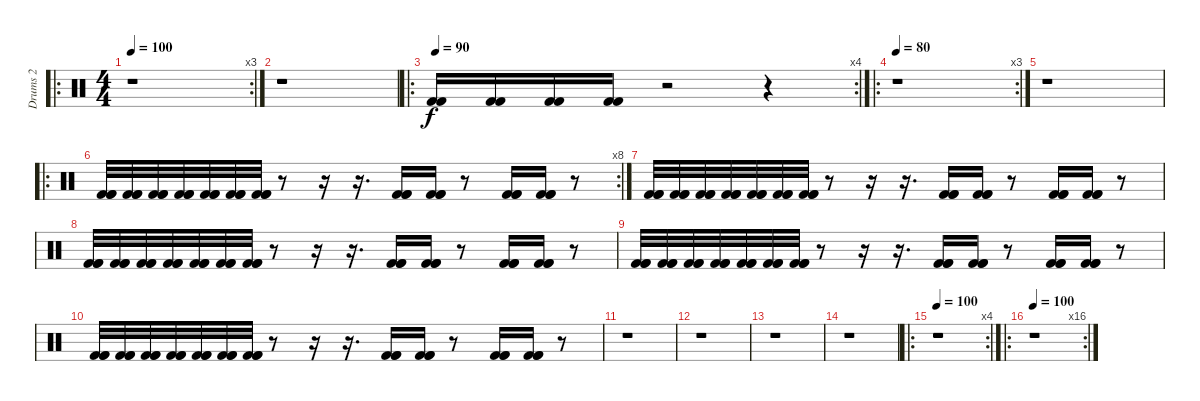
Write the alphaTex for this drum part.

\track ("Drums 2" "Drums 2") {instrument percussion}
\staff {score}
\articulation defaults
\ro
\rc 3
\ts (4 4)
\tempo 100
\clef neutral
\ks c
r.1{dy f} |
r.1 |
\ro
\rc 4
\tempo 90
("Kick (hit) 2" "Kick (hit) 2").16 ("Kick (hit) 2" "Kick (hit) 2").16 ("Kick (hit) 2" "Kick (hit) 2").16 ("Kick (hit) 2" "Kick (hit) 2").16 r.2 r.4 |
\ro
\rc 3
\tempo 80
r.1 |
r.1 |
\ro
\rc 8
("Kick (hit) 2" "Kick (hit) 2" "Kick (hit) 2").32 ("Kick (hit) 2" "Kick (hit) 2" "Kick (hit) 2").32 ("Kick (hit) 2" "Kick (hit) 2" "Kick (hit) 2").32 ("Kick (hit) 2" "Kick (hit) 2" "Kick (hit) 2").32 ("Kick (hit) 2" "Kick (hit) 2" "Kick (hit) 2").32 ("Kick (hit) 2" "Kick (hit) 2" "Kick (hit) 2").32 ("Kick (hit) 2" "Kick (hit) 2" "Kick (hit) 2").32 r.8 r.16 r.16{d} ("Kick (hit) 2" "Kick (hit) 2" "Kick (hit) 2").16 ("Kick (hit) 2" "Kick (hit) 2" "Kick (hit) 2").16 r.8 ("Kick (hit) 2" "Kick (hit) 2" "Kick (hit) 2").16 ("Kick (hit) 2" "Kick (hit) 2" "Kick (hit) 2").16 r.8 |
("Kick (hit) 2" "Kick (hit) 2" "Kick (hit) 2").32 ("Kick (hit) 2" "Kick (hit) 2" "Kick (hit) 2").32 ("Kick (hit) 2" "Kick (hit) 2" "Kick (hit) 2").32 ("Kick (hit) 2" "Kick (hit) 2" "Kick (hit) 2").32 ("Kick (hit) 2" "Kick (hit) 2" "Kick (hit) 2").32 ("Kick (hit) 2" "Kick (hit) 2" "Kick (hit) 2").32 ("Kick (hit) 2" "Kick (hit) 2" "Kick (hit) 2").32 r.8 r.16 r.16{d} ("Kick (hit) 2" "Kick (hit) 2" "Kick (hit) 2").16 ("Kick (hit) 2" "Kick (hit) 2" "Kick (hit) 2").16 r.8 ("Kick (hit) 2" "Kick (hit) 2" "Kick (hit) 2").16 ("Kick (hit) 2" "Kick (hit) 2" "Kick (hit) 2").16 r.8 |
("Kick (hit) 2" "Kick (hit) 2" "Kick (hit) 2").32 ("Kick (hit) 2" "Kick (hit) 2" "Kick (hit) 2").32 ("Kick (hit) 2" "Kick (hit) 2" "Kick (hit) 2").32 ("Kick (hit) 2" "Kick (hit) 2" "Kick (hit) 2").32 ("Kick (hit) 2" "Kick (hit) 2" "Kick (hit) 2").32 ("Kick (hit) 2" "Kick (hit) 2" "Kick (hit) 2").32 ("Kick (hit) 2" "Kick (hit) 2" "Kick (hit) 2").32 r.8 r.16 r.16{d} ("Kick (hit) 2" "Kick (hit) 2" "Kick (hit) 2").16 ("Kick (hit) 2" "Kick (hit) 2" "Kick (hit) 2").16 r.8 ("Kick (hit) 2" "Kick (hit) 2" "Kick (hit) 2").16 ("Kick (hit) 2" "Kick (hit) 2" "Kick (hit) 2").16 r.8 |
("Kick (hit) 2" "Kick (hit) 2" "Kick (hit) 2").32 ("Kick (hit) 2" "Kick (hit) 2" "Kick (hit) 2").32 ("Kick (hit) 2" "Kick (hit) 2" "Kick (hit) 2").32 ("Kick (hit) 2" "Kick (hit) 2" "Kick (hit) 2").32 ("Kick (hit) 2" "Kick (hit) 2" "Kick (hit) 2").32 ("Kick (hit) 2" "Kick (hit) 2" "Kick (hit) 2").32 ("Kick (hit) 2" "Kick (hit) 2" "Kick (hit) 2").32 r.8 r.16 r.16{d} ("Kick (hit) 2" "Kick (hit) 2" "Kick (hit) 2").16 ("Kick (hit) 2" "Kick (hit) 2" "Kick (hit) 2").16 r.8 ("Kick (hit) 2" "Kick (hit) 2" "Kick (hit) 2").16 ("Kick (hit) 2" "Kick (hit) 2" "Kick (hit) 2").16 r.8 |
("Kick (hit) 2" "Kick (hit) 2" "Kick (hit) 2").32 ("Kick (hit) 2" "Kick (hit) 2" "Kick (hit) 2").32 ("Kick (hit) 2" "Kick (hit) 2" "Kick (hit) 2").32 ("Kick (hit) 2" "Kick (hit) 2" "Kick (hit) 2").32 ("Kick (hit) 2" "Kick (hit) 2" "Kick (hit) 2").32 ("Kick (hit) 2" "Kick (hit) 2" "Kick (hit) 2").32 ("Kick (hit) 2" "Kick (hit) 2" "Kick (hit) 2").32 r.8 r.16 r.16{d} ("Kick (hit) 2" "Kick (hit) 2" "Kick (hit) 2").16 ("Kick (hit) 2" "Kick (hit) 2" "Kick (hit) 2").16 r.8 ("Kick (hit) 2" "Kick (hit) 2" "Kick (hit) 2").16 ("Kick (hit) 2" "Kick (hit) 2" "Kick (hit) 2").16 r.8 |
r.1 |
r.1 |
r.1 |
r.1 |
\ro
\rc 4
\tempo 100
r.1 |
\ro
\rc 16
\tempo 100
r.1
